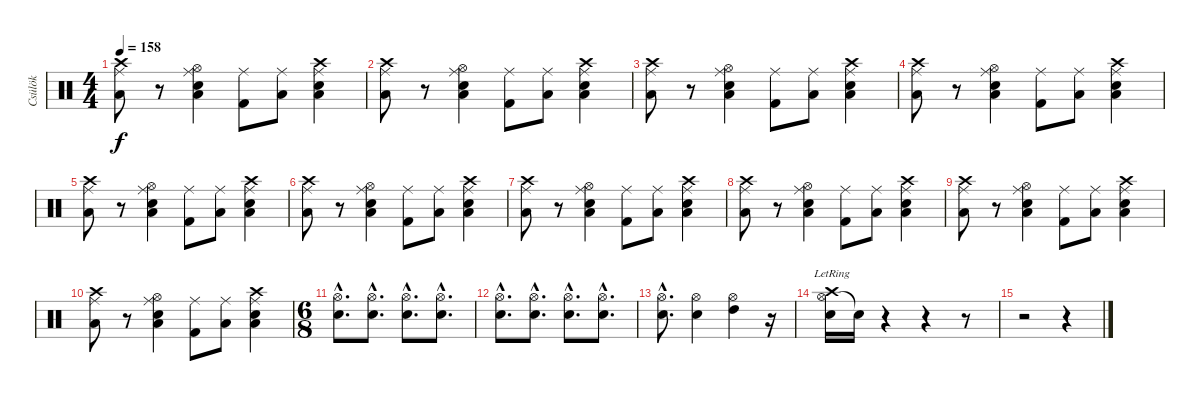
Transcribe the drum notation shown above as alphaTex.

\track ("Csülök" "Csülök") {instrument percussion}
\staff {score}
\articulation defaults
\ts (4 4)
\tempo 158
\clef neutral
\ks c
("Crash high (hit)" "Low Tom (hit)" "Ride (middle)").8{dy f} r.8 ("Hi-Hat (open)" "Snare (hit) 2" "Low Tom (hit)" "Ride (middle)").4 ("Kick (hit) 2" "Ride (middle)").8 ("Low Tom (hit)" "Ride (middle)").8 ("Crash high (hit)" "Snare (hit) 2" "Low Tom (hit)" "Ride (middle)").4 |
("Crash high (hit)" "Low Tom (hit)" "Ride (middle)").8 r.8 ("Hi-Hat (open)" "Snare (hit) 2" "Low Tom (hit)" "Ride (middle)").4 ("Kick (hit) 2" "Ride (middle)").8 ("Low Tom (hit)" "Ride (middle)").8 ("Crash high (hit)" "Snare (hit) 2" "Low Tom (hit)" "Ride (middle)").4 |
("Crash high (hit)" "Low Tom (hit)" "Ride (middle)").8 r.8 ("Hi-Hat (open)" "Snare (hit) 2" "Low Tom (hit)" "Ride (middle)").4 ("Kick (hit) 2" "Ride (middle)").8 ("Low Tom (hit)" "Ride (middle)").8 ("Crash high (hit)" "Snare (hit) 2" "Low Tom (hit)" "Ride (middle)").4 |
("Crash high (hit)" "Low Tom (hit)" "Ride (middle)").8 r.8 ("Hi-Hat (open)" "Snare (hit) 2" "Low Tom (hit)" "Ride (middle)").4 ("Kick (hit) 2" "Ride (middle)").8 ("Low Tom (hit)" "Ride (middle)").8 ("Crash high (hit)" "Snare (hit) 2" "Low Tom (hit)" "Ride (middle)").4 |
("Crash high (hit)" "Low Tom (hit)" "Ride (middle)").8 r.8 ("Hi-Hat (open)" "Snare (hit) 2" "Low Tom (hit)" "Ride (middle)").4 ("Kick (hit) 2" "Ride (middle)").8 ("Low Tom (hit)" "Ride (middle)").8 ("Crash high (hit)" "Snare (hit) 2" "Low Tom (hit)" "Ride (middle)").4 |
("Crash high (hit)" "Low Tom (hit)" "Ride (middle)").8 r.8 ("Hi-Hat (open)" "Snare (hit) 2" "Low Tom (hit)" "Ride (middle)").4 ("Kick (hit) 2" "Ride (middle)").8 ("Low Tom (hit)" "Ride (middle)").8 ("Crash high (hit)" "Snare (hit) 2" "Low Tom (hit)" "Ride (middle)").4 |
("Crash high (hit)" "Low Tom (hit)" "Ride (middle)").8 r.8 ("Hi-Hat (open)" "Snare (hit) 2" "Low Tom (hit)" "Ride (middle)").4 ("Kick (hit) 2" "Ride (middle)").8 ("Low Tom (hit)" "Ride (middle)").8 ("Crash high (hit)" "Snare (hit) 2" "Low Tom (hit)" "Ride (middle)").4 |
("Crash high (hit)" "Low Tom (hit)" "Ride (middle)").8 r.8 ("Hi-Hat (open)" "Snare (hit) 2" "Low Tom (hit)" "Ride (middle)").4 ("Kick (hit) 2" "Ride (middle)").8 ("Low Tom (hit)" "Ride (middle)").8 ("Crash high (hit)" "Snare (hit) 2" "Low Tom (hit)" "Ride (middle)").4 |
("Crash high (hit)" "Low Tom (hit)" "Ride (middle)").8 r.8 ("Hi-Hat (open)" "Snare (hit) 2" "Low Tom (hit)" "Ride (middle)").4 ("Kick (hit) 2" "Ride (middle)").8 ("Low Tom (hit)" "Ride (middle)").8 ("Crash high (hit)" "Snare (hit) 2" "Low Tom (hit)" "Ride (middle)").4 |
("Crash high (hit)" "Low Tom (hit)" "Ride (middle)").8 r.8 ("Hi-Hat (open)" "Snare (hit) 2" "Low Tom (hit)" "Ride (middle)").4 ("Kick (hit) 2" "Ride (middle)").8 ("Low Tom (hit)" "Ride (middle)").8 ("Crash high (hit)" "Snare (hit) 2" "Low Tom (hit)" "Ride (middle)").4 |
\ts (6 8)
("Hi-Hat (open)"{hac} "Snare (hit) 2"{hac}).8{d} ("Hi-Hat (open)"{hac} "Snare (hit) 2"{hac}).8{d} ("Hi-Hat (open)"{hac} "Snare (hit) 2"{hac}).8{d} ("Hi-Hat (open)"{hac} "Snare (hit) 2"{hac}).8{d} |
("Hi-Hat (open)"{hac} "Snare (hit) 2"{hac}).8{d} ("Hi-Hat (open)"{hac} "Snare (hit) 2"{hac}).8{d} ("Hi-Hat (open)"{hac} "Snare (hit) 2"{hac}).8{d} ("Hi-Hat (open)"{hac} "Snare (hit) 2"{hac}).8{d} |
("Hi-Hat (open)"{hac} "Snare (hit) 2"{hac}).8{d} ("Hi-Hat (open)" "Snare (hit) 2").4 ("Hi-Hat (open)" "High Tom (hit)").4 r.16 |
("Hi-Hat (open)" "Snare (hit) 2"{lr} "Crash high (hit)").16 "Snare (hit)"{t}.16 r.4 r.4 r.8 |
r.2 r.4
